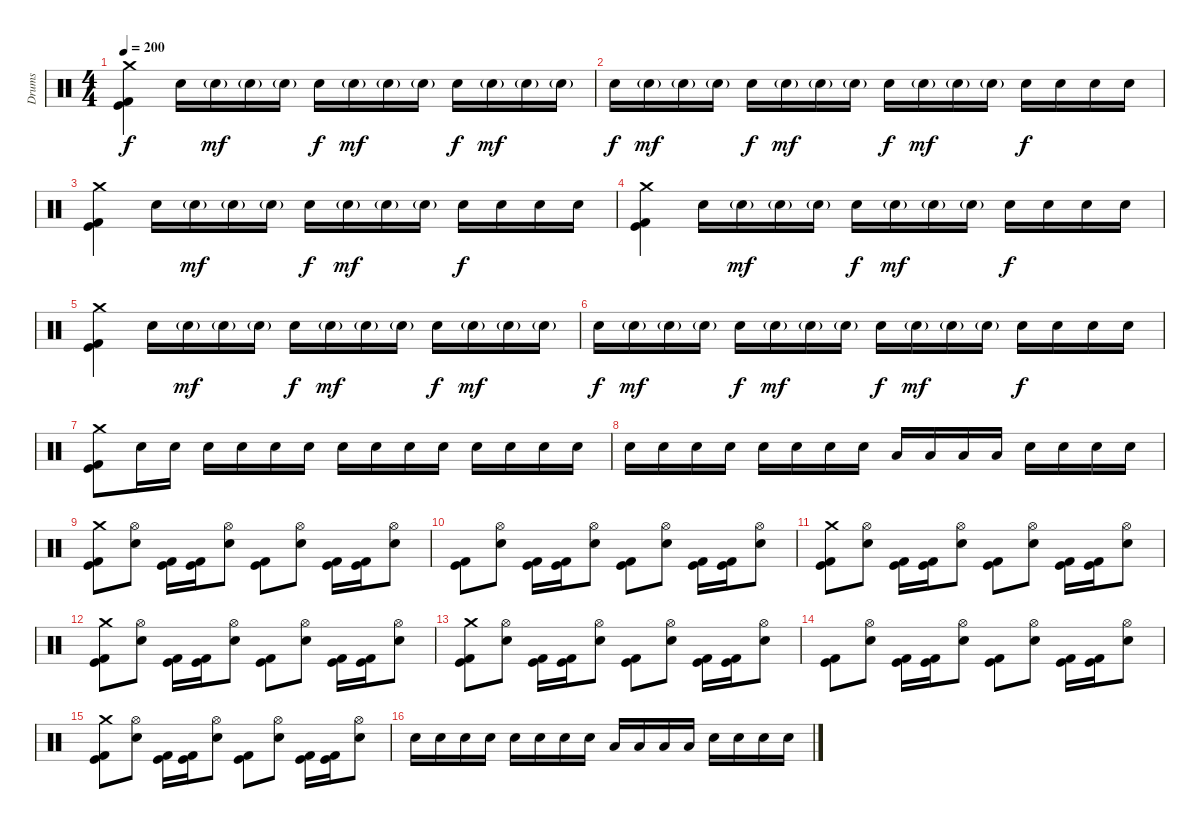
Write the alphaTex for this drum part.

\track ("Drums" "Drums") {instrument percussion}
\staff {score}
\articulation defaults
\ts (4 4)
\tempo 200
\clef neutral
\ks c
("Crash medium (hit)" "Kick (hit)" "Kick (hit) 2").4{dy f} "Electric Snare (hit)".16 "Electric Snare (hit)"{g}.16{dy mf} "Electric Snare (hit)"{g}.16 "Electric Snare (hit)"{g}.16 "Electric Snare (hit)".16{dy f} "Electric Snare (hit)"{g}.16{dy mf} "Electric Snare (hit)"{g}.16 "Electric Snare (hit)"{g}.16 "Electric Snare (hit)".16{dy f} "Electric Snare (hit)"{g}.16{dy mf} "Electric Snare (hit)"{g}.16 "Electric Snare (hit)"{g}.16 |
"Electric Snare (hit)".16{dy f} "Electric Snare (hit)"{g}.16{dy mf} "Electric Snare (hit)"{g}.16 "Electric Snare (hit)"{g}.16 "Electric Snare (hit)".16{dy f} "Electric Snare (hit)"{g}.16{dy mf} "Electric Snare (hit)"{g}.16 "Electric Snare (hit)"{g}.16 "Electric Snare (hit)".16{dy f} "Electric Snare (hit)"{g}.16{dy mf} "Electric Snare (hit)"{g}.16 "Electric Snare (hit)"{g}.16 "Electric Snare (hit)".16{dy f} "Electric Snare (hit)".16 "Electric Snare (hit)".16 "Electric Snare (hit)".16 |
("Crash medium (hit)" "Kick (hit)" "Kick (hit) 2").4 "Electric Snare (hit)".16 "Electric Snare (hit)"{g}.16{dy mf} "Electric Snare (hit)"{g}.16 "Electric Snare (hit)"{g}.16 "Electric Snare (hit)".16{dy f} "Electric Snare (hit)"{g}.16{dy mf} "Electric Snare (hit)"{g}.16 "Electric Snare (hit)"{g}.16 "Electric Snare (hit)".16{dy f} "Electric Snare (hit)".16 "Electric Snare (hit)".16 "Electric Snare (hit)".16 |
("Crash medium (hit)" "Kick (hit)" "Kick (hit) 2").4 "Electric Snare (hit)".16 "Electric Snare (hit)"{g}.16{dy mf} "Electric Snare (hit)"{g}.16 "Electric Snare (hit)"{g}.16 "Electric Snare (hit)".16{dy f} "Electric Snare (hit)"{g}.16{dy mf} "Electric Snare (hit)"{g}.16 "Electric Snare (hit)"{g}.16 "Electric Snare (hit)".16{dy f} "Electric Snare (hit)".16 "Electric Snare (hit)".16 "Electric Snare (hit)".16 |
("Crash medium (hit)" "Kick (hit)" "Kick (hit) 2").4 "Electric Snare (hit)".16 "Electric Snare (hit)"{g}.16{dy mf} "Electric Snare (hit)"{g}.16 "Electric Snare (hit)"{g}.16 "Electric Snare (hit)".16{dy f} "Electric Snare (hit)"{g}.16{dy mf} "Electric Snare (hit)"{g}.16 "Electric Snare (hit)"{g}.16 "Electric Snare (hit)".16{dy f} "Electric Snare (hit)"{g}.16{dy mf} "Electric Snare (hit)"{g}.16 "Electric Snare (hit)"{g}.16 |
"Electric Snare (hit)".16{dy f} "Electric Snare (hit)"{g}.16{dy mf} "Electric Snare (hit)"{g}.16 "Electric Snare (hit)"{g}.16 "Electric Snare (hit)".16{dy f} "Electric Snare (hit)"{g}.16{dy mf} "Electric Snare (hit)"{g}.16 "Electric Snare (hit)"{g}.16 "Electric Snare (hit)".16{dy f} "Electric Snare (hit)"{g}.16{dy mf} "Electric Snare (hit)"{g}.16 "Electric Snare (hit)"{g}.16 "Electric Snare (hit)".16{dy f} "Electric Snare (hit)".16 "Electric Snare (hit)".16 "Electric Snare (hit)".16 |
("Crash medium (hit)" "Kick (hit)" "Kick (hit) 2").8 "Electric Snare (hit)".16 "Electric Snare (hit)".16 "Electric Snare (hit)".16 "Electric Snare (hit)".16 "Electric Snare (hit)".16 "Electric Snare (hit)".16 "Electric Snare (hit)".16 "Electric Snare (hit)".16 "Electric Snare (hit)".16 "Electric Snare (hit)".16 "Electric Snare (hit)".16 "Electric Snare (hit)".16 "Electric Snare (hit)".16 "Electric Snare (hit)".16 |
"Electric Snare (hit)".16 "Electric Snare (hit)".16 "Electric Snare (hit)".16 "Electric Snare (hit)".16 "Electric Snare (hit)".16 "Electric Snare (hit)".16 "Electric Snare (hit)".16 "Electric Snare (hit)".16 "Low Tom (hit)".16 "Low Tom (hit)".16 "Low Tom (hit)".16 "Low Tom (hit)".16 "Electric Snare (hit)".16 "Electric Snare (hit)".16 "Electric Snare (hit)".16 "Electric Snare (hit)".16 |
("Crash medium (hit)" "Kick (hit)" "Kick (hit) 2").8 ("Hi-Hat (open)" "Electric Snare (hit)").8 ("Kick (hit)" "Kick (hit) 2").16 ("Kick (hit)" "Kick (hit) 2").16 ("Hi-Hat (open)" "Electric Snare (hit)").8 ("Kick (hit)" "Kick (hit) 2").8 ("Hi-Hat (open)" "Electric Snare (hit)").8 ("Kick (hit)" "Kick (hit) 2").16 ("Kick (hit)" "Kick (hit) 2").16 ("Hi-Hat (open)" "Electric Snare (hit)").8 |
("Kick (hit)" "Kick (hit) 2").8 ("Hi-Hat (open)" "Electric Snare (hit)").8 ("Kick (hit)" "Kick (hit) 2").16 ("Kick (hit)" "Kick (hit) 2").16 ("Hi-Hat (open)" "Electric Snare (hit)").8 ("Kick (hit)" "Kick (hit) 2").8 ("Hi-Hat (open)" "Electric Snare (hit)").8 ("Kick (hit)" "Kick (hit) 2").16 ("Kick (hit)" "Kick (hit) 2").16 ("Hi-Hat (open)" "Electric Snare (hit)").8 |
("Crash medium (hit)" "Kick (hit)" "Kick (hit) 2").8 ("Hi-Hat (open)" "Electric Snare (hit)").8 ("Kick (hit)" "Kick (hit) 2").16 ("Kick (hit)" "Kick (hit) 2").16 ("Hi-Hat (open)" "Electric Snare (hit)").8 ("Kick (hit)" "Kick (hit) 2").8 ("Hi-Hat (open)" "Electric Snare (hit)").8 ("Kick (hit)" "Kick (hit) 2").16 ("Kick (hit)" "Kick (hit) 2").16 ("Hi-Hat (open)" "Electric Snare (hit)").8 |
("Crash medium (hit)" "Kick (hit)" "Kick (hit) 2").8 ("Hi-Hat (open)" "Electric Snare (hit)").8 ("Kick (hit)" "Kick (hit) 2").16 ("Kick (hit)" "Kick (hit) 2").16 ("Hi-Hat (open)" "Electric Snare (hit)").8 ("Kick (hit)" "Kick (hit) 2").8 ("Hi-Hat (open)" "Electric Snare (hit)").8 ("Kick (hit)" "Kick (hit) 2").16 ("Kick (hit)" "Kick (hit) 2").16 ("Hi-Hat (open)" "Electric Snare (hit)").8 |
("Crash medium (hit)" "Kick (hit)" "Kick (hit) 2").8 ("Hi-Hat (open)" "Electric Snare (hit)").8 ("Kick (hit)" "Kick (hit) 2").16 ("Kick (hit)" "Kick (hit) 2").16 ("Hi-Hat (open)" "Electric Snare (hit)").8 ("Kick (hit)" "Kick (hit) 2").8 ("Hi-Hat (open)" "Electric Snare (hit)").8 ("Kick (hit)" "Kick (hit) 2").16 ("Kick (hit)" "Kick (hit) 2").16 ("Hi-Hat (open)" "Electric Snare (hit)").8 |
("Kick (hit)" "Kick (hit) 2").8 ("Hi-Hat (open)" "Electric Snare (hit)").8 ("Kick (hit)" "Kick (hit) 2").16 ("Kick (hit)" "Kick (hit) 2").16 ("Hi-Hat (open)" "Electric Snare (hit)").8 ("Kick (hit)" "Kick (hit) 2").8 ("Hi-Hat (open)" "Electric Snare (hit)").8 ("Kick (hit)" "Kick (hit) 2").16 ("Kick (hit)" "Kick (hit) 2").16 ("Hi-Hat (open)" "Electric Snare (hit)").8 |
("Crash medium (hit)" "Kick (hit)" "Kick (hit) 2").8 ("Hi-Hat (open)" "Electric Snare (hit)").8 ("Kick (hit)" "Kick (hit) 2").16 ("Kick (hit)" "Kick (hit) 2").16 ("Hi-Hat (open)" "Electric Snare (hit)").8 ("Kick (hit)" "Kick (hit) 2").8 ("Hi-Hat (open)" "Electric Snare (hit)").8 ("Kick (hit)" "Kick (hit) 2").16 ("Kick (hit)" "Kick (hit) 2").16 ("Hi-Hat (open)" "Electric Snare (hit)").8 |
"Electric Snare (hit)".16 "Electric Snare (hit)".16 "Electric Snare (hit)".16 "Electric Snare (hit)".16 "Electric Snare (hit)".16 "Electric Snare (hit)".16 "Electric Snare (hit)".16 "Electric Snare (hit)".16 "Low Tom (hit)".16 "Low Tom (hit)".16 "Low Tom (hit)".16 "Low Tom (hit)".16 "Electric Snare (hit)".16 "Electric Snare (hit)".16 "Electric Snare (hit)".16 "Electric Snare (hit)".16
